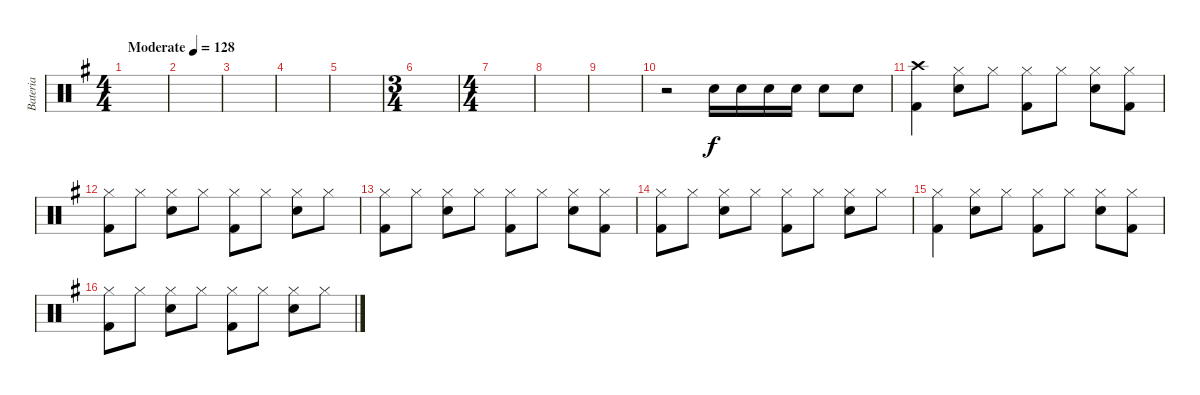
\track ("Bateria" "Bateria") {instrument percussion}
\staff {score}
\articulation defaults
\ts (4 4)
\tempo (128 "Moderate")
\clef neutral
\ks g
|
|
|
|
|
\ts (3 4)
|
\ts (4 4)
|
|
|
r.2 "Snare (hit) 2".16 "Snare (hit) 2".16 "Snare (hit) 2".16 "Snare (hit) 2".16 "Snare (hit) 2".8 "Snare (hit) 2".8 |
("Crash high (hit)" "Kick (hit) 2").4 ("Hi-Hat (closed)" "Snare (hit) 2").8 "Hi-Hat (closed)".8 ("Hi-Hat (closed)" "Kick (hit) 2").8 "Hi-Hat (closed)".8 ("Hi-Hat (closed)" "Snare (hit) 2").8 ("Hi-Hat (closed)" "Kick (hit) 2").8 |
("Hi-Hat (closed)" "Kick (hit) 2").8 "Hi-Hat (closed)".8 ("Hi-Hat (closed)" "Snare (hit) 2").8 "Hi-Hat (closed)".8 ("Hi-Hat (closed)" "Kick (hit) 2").8 "Hi-Hat (closed)".8 ("Hi-Hat (closed)" "Snare (hit) 2").8 "Hi-Hat (closed)".8 |
("Hi-Hat (closed)" "Kick (hit) 2").8 "Hi-Hat (closed)".8 ("Hi-Hat (closed)" "Snare (hit) 2").8 "Hi-Hat (closed)".8 ("Hi-Hat (closed)" "Kick (hit) 2").8 "Hi-Hat (closed)".8 ("Hi-Hat (closed)" "Snare (hit) 2").8 ("Hi-Hat (closed)" "Kick (hit) 2").8 |
("Hi-Hat (closed)" "Kick (hit) 2").8 "Hi-Hat (closed)".8 ("Hi-Hat (closed)" "Snare (hit) 2").8 "Hi-Hat (closed)".8 ("Hi-Hat (closed)" "Kick (hit) 2").8 "Hi-Hat (closed)".8 ("Hi-Hat (closed)" "Snare (hit) 2").8 "Hi-Hat (closed)".8 |
("Hi-Hat (closed)" "Kick (hit) 2").4 ("Hi-Hat (closed)" "Snare (hit) 2").8 "Hi-Hat (closed)".8 ("Hi-Hat (closed)" "Kick (hit) 2").8 "Hi-Hat (closed)".8 ("Hi-Hat (closed)" "Snare (hit) 2").8 ("Hi-Hat (closed)" "Kick (hit) 2").8 |
("Hi-Hat (closed)" "Kick (hit) 2").8 "Hi-Hat (closed)".8 ("Hi-Hat (closed)" "Snare (hit) 2").8 "Hi-Hat (closed)".8 ("Hi-Hat (closed)" "Kick (hit) 2").8 "Hi-Hat (closed)".8 ("Hi-Hat (closed)" "Snare (hit) 2").8 "Hi-Hat (closed)".8
